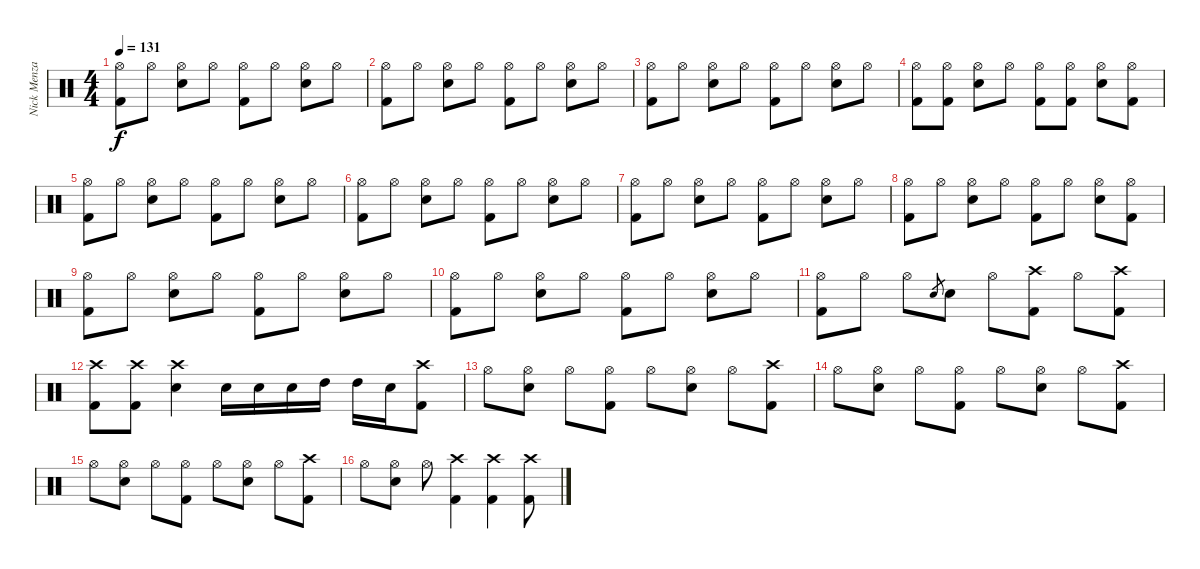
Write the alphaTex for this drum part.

\track ("Nick Menza" "Nick Menza") {instrument percussion}
\staff {score}
\articulation defaults
\ts (4 4)
\tempo 131
\clef neutral
\ks c
("Hi-Hat (open)" "Kick (hit) 2").8{dy f} "Hi-Hat (open)".8 ("Hi-Hat (open)" "Snare (hit) 2").8 "Hi-Hat (open)".8 ("Hi-Hat (open)" "Kick (hit) 2").8 "Hi-Hat (open)".8 ("Hi-Hat (open)" "Snare (hit) 2").8 "Hi-Hat (open)".8 |
("Hi-Hat (open)" "Kick (hit) 2").8 "Hi-Hat (open)".8 ("Hi-Hat (open)" "Snare (hit) 2").8 "Hi-Hat (open)".8 ("Hi-Hat (open)" "Kick (hit) 2").8 "Hi-Hat (open)".8 ("Hi-Hat (open)" "Snare (hit) 2").8 "Hi-Hat (open)".8 |
("Hi-Hat (open)" "Kick (hit) 2").8 "Hi-Hat (open)".8 ("Hi-Hat (open)" "Snare (hit) 2").8 "Hi-Hat (open)".8 ("Hi-Hat (open)" "Kick (hit) 2").8 "Hi-Hat (open)".8 ("Hi-Hat (open)" "Snare (hit) 2").8 "Hi-Hat (open)".8 |
("Hi-Hat (open)" "Kick (hit) 2").8 ("Hi-Hat (open)" "Kick (hit) 2").8 ("Hi-Hat (open)" "Snare (hit) 2").8 "Hi-Hat (open)".8 ("Hi-Hat (open)" "Kick (hit) 2").8 ("Hi-Hat (open)" "Kick (hit) 2").8 ("Hi-Hat (open)" "Snare (hit) 2").8 ("Hi-Hat (open)" "Kick (hit) 2").8 |
("Hi-Hat (open)" "Kick (hit) 2").8 "Hi-Hat (open)".8 ("Hi-Hat (open)" "Snare (hit) 2").8 "Hi-Hat (open)".8 ("Hi-Hat (open)" "Kick (hit) 2").8 "Hi-Hat (open)".8 ("Hi-Hat (open)" "Snare (hit) 2").8 "Hi-Hat (open)".8 |
("Hi-Hat (open)" "Kick (hit) 2").8 "Hi-Hat (open)".8 ("Hi-Hat (open)" "Snare (hit) 2").8 "Hi-Hat (open)".8 ("Hi-Hat (open)" "Kick (hit) 2").8 "Hi-Hat (open)".8 ("Hi-Hat (open)" "Snare (hit) 2").8 "Hi-Hat (open)".8 |
("Hi-Hat (open)" "Kick (hit) 2").8 "Hi-Hat (open)".8 ("Hi-Hat (open)" "Snare (hit) 2").8 "Hi-Hat (open)".8 ("Hi-Hat (open)" "Kick (hit) 2").8 "Hi-Hat (open)".8 ("Hi-Hat (open)" "Snare (hit) 2").8 "Hi-Hat (open)".8 |
("Hi-Hat (open)" "Kick (hit) 2").8 "Hi-Hat (open)".8 ("Hi-Hat (open)" "Snare (hit) 2").8 "Hi-Hat (open)".8 ("Hi-Hat (open)" "Kick (hit) 2").8 "Hi-Hat (open)".8 ("Hi-Hat (open)" "Snare (hit) 2").8 ("Hi-Hat (open)" "Kick (hit) 2").8 |
("Hi-Hat (open)" "Kick (hit) 2").8 "Hi-Hat (open)".8 ("Hi-Hat (open)" "Snare (hit) 2").8 "Hi-Hat (open)".8 ("Hi-Hat (open)" "Kick (hit) 2").8 "Hi-Hat (open)".8 ("Hi-Hat (open)" "Snare (hit) 2").8 "Hi-Hat (open)".8 |
("Hi-Hat (open)" "Kick (hit) 2").8 "Hi-Hat (open)".8 ("Hi-Hat (open)" "Snare (hit) 2").8 "Hi-Hat (open)".8 ("Hi-Hat (open)" "Kick (hit) 2").8 "Hi-Hat (open)".8 ("Hi-Hat (open)" "Snare (hit) 2").8 "Hi-Hat (open)".8 |
("Hi-Hat (open)" "Kick (hit) 2").8 "Hi-Hat (open)".8 "Hi-Hat (open)".8 "Snare (hit) 2".8{gr} "Snare (hit) 2".8 "Hi-Hat (open)".8 ("Crash high (hit)" "Kick (hit) 2").8 "Hi-Hat (open)".8 ("Crash high (hit)" "Kick (hit) 2").8 |
("Crash high (hit)" "Kick (hit) 2").8 ("Crash high (hit)" "Kick (hit) 2").8 ("Crash high (hit)" "Snare (hit) 2").4 "Snare (hit) 2".16 "Snare (hit) 2".16 "Snare (hit) 2".16 "High Tom (hit)".16 "High Tom (hit)".16 "Snare (hit) 2".16 ("Crash high (hit)" "Kick (hit) 2").8 |
"Hi-Hat (open)".8 ("Hi-Hat (open)" "Snare (hit) 2").8 "Hi-Hat (open)".8 ("Hi-Hat (open)" "Kick (hit) 2").8 "Hi-Hat (open)".8 ("Hi-Hat (open)" "Snare (hit) 2").8 "Hi-Hat (open)".8 ("Crash high (hit)" "Kick (hit) 2").8 |
"Hi-Hat (open)".8 ("Hi-Hat (open)" "Snare (hit) 2").8 "Hi-Hat (open)".8 ("Hi-Hat (open)" "Kick (hit) 2").8 "Hi-Hat (open)".8 ("Hi-Hat (open)" "Snare (hit) 2").8 "Hi-Hat (open)".8 ("Crash high (hit)" "Kick (hit) 2").8 |
"Hi-Hat (open)".8 ("Hi-Hat (open)" "Snare (hit) 2").8 "Hi-Hat (open)".8 ("Hi-Hat (open)" "Kick (hit) 2").8 "Hi-Hat (open)".8 ("Hi-Hat (open)" "Snare (hit) 2").8 "Hi-Hat (open)".8 ("Crash high (hit)" "Kick (hit) 2").8 |
"Hi-Hat (open)".8 ("Hi-Hat (open)" "Snare (hit) 2").8 "Hi-Hat (open)".8 ("Crash high (hit)" "Kick (hit) 2").4 ("Crash high (hit)" "Kick (hit) 2").4 ("Crash high (hit)" "Kick (hit) 2").8
